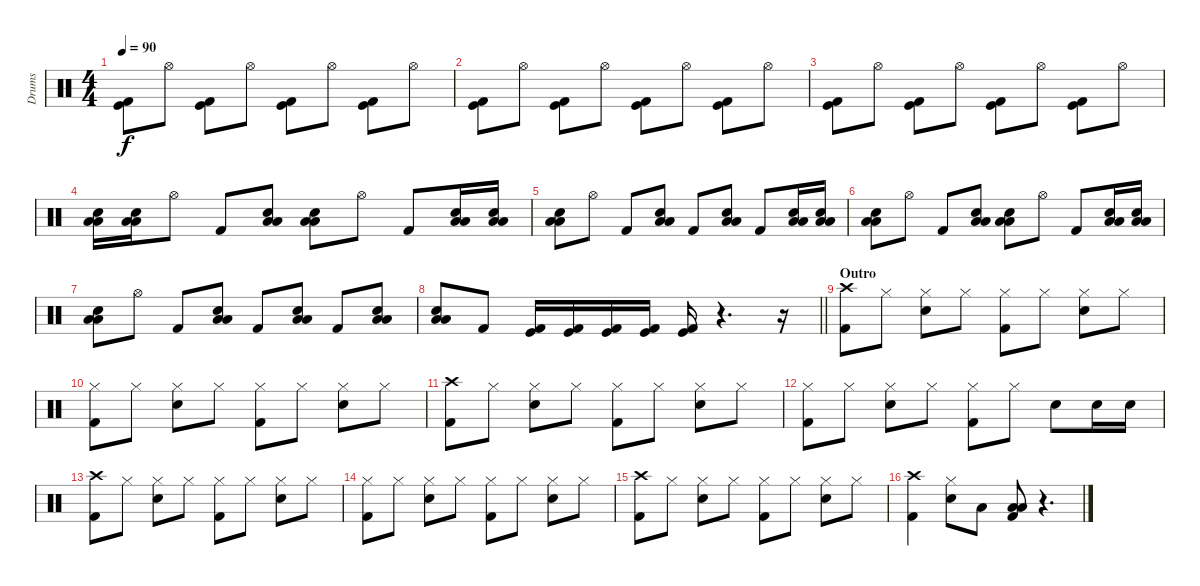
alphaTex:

\track ("Drums" "Drums") {instrument percussion}
\staff {score}
\articulation defaults
\ts (4 4)
\tempo 90
\clef neutral
\ks c
("Kick (hit)" "Kick (hit) 2").8{dy f} "Hi-Hat (open)".8 ("Kick (hit)" "Kick (hit) 2").8 "Hi-Hat (open)".8 ("Kick (hit)" "Kick (hit) 2").8 "Hi-Hat (open)".8 ("Kick (hit)" "Kick (hit) 2").8 "Hi-Hat (open)".8 |
("Kick (hit)" "Kick (hit) 2").8 "Hi-Hat (open)".8 ("Kick (hit)" "Kick (hit) 2").8 "Hi-Hat (open)".8 ("Kick (hit)" "Kick (hit) 2").8 "Hi-Hat (open)".8 ("Kick (hit)" "Kick (hit) 2").8 "Hi-Hat (open)".8 |
("Kick (hit)" "Kick (hit) 2").8 "Hi-Hat (open)".8 ("Kick (hit)" "Kick (hit) 2").8 "Hi-Hat (open)".8 ("Kick (hit)" "Kick (hit) 2").8 "Hi-Hat (open)".8 ("Kick (hit)" "Kick (hit) 2").8 "Hi-Hat (open)".8 |
("Snare (hit) 2" "Low Tom (hit)" "Low Floor Tom (hit)").16 ("Snare (hit) 2" "Low Tom (hit)" "Low Floor Tom (hit)").16 "Hi-Hat (open)".8 "Kick (hit) 2".8 ("Snare (hit) 2" "Low Tom (hit)" "Low Floor Tom (hit)").8 ("Snare (hit) 2" "Low Tom (hit)" "Low Floor Tom (hit)").8 "Hi-Hat (open)".8 "Kick (hit) 2".8 ("Snare (hit) 2" "Low Tom (hit)" "Low Floor Tom (hit)").16 ("Snare (hit) 2" "Low Tom (hit)" "Low Floor Tom (hit)").16 |
("Snare (hit) 2" "Low Tom (hit)" "Low Floor Tom (hit)").8 "Hi-Hat (open)".8 "Kick (hit) 2".8 ("Snare (hit) 2" "Low Tom (hit)" "Low Floor Tom (hit)").8 "Kick (hit) 2".8 ("Snare (hit) 2" "Low Tom (hit)" "Low Floor Tom (hit)").8 "Kick (hit) 2".8 ("Snare (hit) 2" "Low Tom (hit)" "Low Floor Tom (hit)").16 ("Snare (hit) 2" "Low Tom (hit)" "Low Floor Tom (hit)").16 |
("Snare (hit) 2" "Low Tom (hit)" "Low Floor Tom (hit)").8 "Hi-Hat (open)".8 "Kick (hit) 2".8 ("Snare (hit) 2" "Low Tom (hit)" "Low Floor Tom (hit)").8 ("Snare (hit) 2" "Low Tom (hit)" "Low Floor Tom (hit)").8 "Hi-Hat (open)".8 "Kick (hit) 2".8 ("Snare (hit) 2" "Low Tom (hit)" "Low Floor Tom (hit)").16 ("Snare (hit) 2" "Low Tom (hit)" "Low Floor Tom (hit)").16 |
("Snare (hit) 2" "Low Tom (hit)" "Low Floor Tom (hit)").8 "Hi-Hat (open)".8 "Kick (hit) 2".8 ("Snare (hit) 2" "Low Tom (hit)" "Low Floor Tom (hit)").8 "Kick (hit) 2".8 ("Snare (hit) 2" "Low Tom (hit)" "Low Floor Tom (hit)").8 "Kick (hit) 2".8 ("Snare (hit) 2" "Low Tom (hit)" "Low Floor Tom (hit)").8 |
\barLineRight lightlight
("Snare (hit) 2" "Low Tom (hit)" "Low Floor Tom (hit)").8 "Kick (hit) 2".8 ("Kick (hit)" "Kick (hit) 2").16 ("Kick (hit)" "Kick (hit) 2").16 ("Kick (hit)" "Kick (hit) 2").16 ("Kick (hit)" "Kick (hit) 2").16 ("Kick (hit)" "Kick (hit) 2").16 r.4{d} r.16 |
\section ("" "Outro")
("Crash high (hit)" "Kick (hit) 2").8 "Hi-Hat (closed)".8 ("Hi-Hat (closed)" "Snare (hit) 2").8 "Hi-Hat (closed)".8 ("Hi-Hat (closed)" "Kick (hit) 2").8 "Hi-Hat (closed)".8 ("Hi-Hat (closed)" "Snare (hit) 2").8 "Hi-Hat (closed)".8 |
("Hi-Hat (closed)" "Kick (hit) 2").8 "Hi-Hat (closed)".8 ("Hi-Hat (closed)" "Snare (hit) 2").8 "Hi-Hat (closed)".8 ("Hi-Hat (closed)" "Kick (hit) 2").8 "Hi-Hat (closed)".8 ("Hi-Hat (closed)" "Snare (hit) 2").8 "Hi-Hat (closed)".8 |
("Crash high (hit)" "Kick (hit) 2").8 "Hi-Hat (closed)".8 ("Hi-Hat (closed)" "Snare (hit) 2").8 "Hi-Hat (closed)".8 ("Hi-Hat (closed)" "Kick (hit) 2").8 "Hi-Hat (closed)".8 ("Hi-Hat (closed)" "Snare (hit) 2").8 "Hi-Hat (closed)".8 |
("Hi-Hat (closed)" "Kick (hit) 2").8 "Hi-Hat (closed)".8 ("Hi-Hat (closed)" "Snare (hit) 2").8 "Hi-Hat (closed)".8 ("Hi-Hat (closed)" "Kick (hit) 2").8 "Hi-Hat (closed)".8 "Snare (hit) 2".8 "Snare (hit) 2".16 "Snare (hit) 2".16 |
("Crash high (hit)" "Kick (hit) 2").8 "Hi-Hat (closed)".8 ("Hi-Hat (closed)" "Snare (hit) 2").8 "Hi-Hat (closed)".8 ("Hi-Hat (closed)" "Kick (hit) 2").8 "Hi-Hat (closed)".8 ("Hi-Hat (closed)" "Snare (hit) 2").8 "Hi-Hat (closed)".8 |
("Hi-Hat (closed)" "Kick (hit) 2").8 "Hi-Hat (closed)".8 ("Hi-Hat (closed)" "Snare (hit) 2").8 "Hi-Hat (closed)".8 ("Hi-Hat (closed)" "Kick (hit) 2").8 "Hi-Hat (closed)".8 ("Hi-Hat (closed)" "Snare (hit) 2").8 "Hi-Hat (closed)".8 |
("Crash high (hit)" "Kick (hit) 2").8 "Hi-Hat (closed)".8 ("Hi-Hat (closed)" "Snare (hit) 2").8 "Hi-Hat (closed)".8 ("Hi-Hat (closed)" "Kick (hit) 2").8 "Hi-Hat (closed)".8 ("Hi-Hat (closed)" "Snare (hit) 2").8 "Hi-Hat (closed)".8 |
("Crash high (hit)" "Kick (hit) 2").4 ("Hi-Hat (closed)" "Snare (hit) 2").8 "Low Tom (hit)".8 ("Low Tom (hit)" "Low Floor Tom (hit)" "Kick (hit) 2").8 r.4{d}
